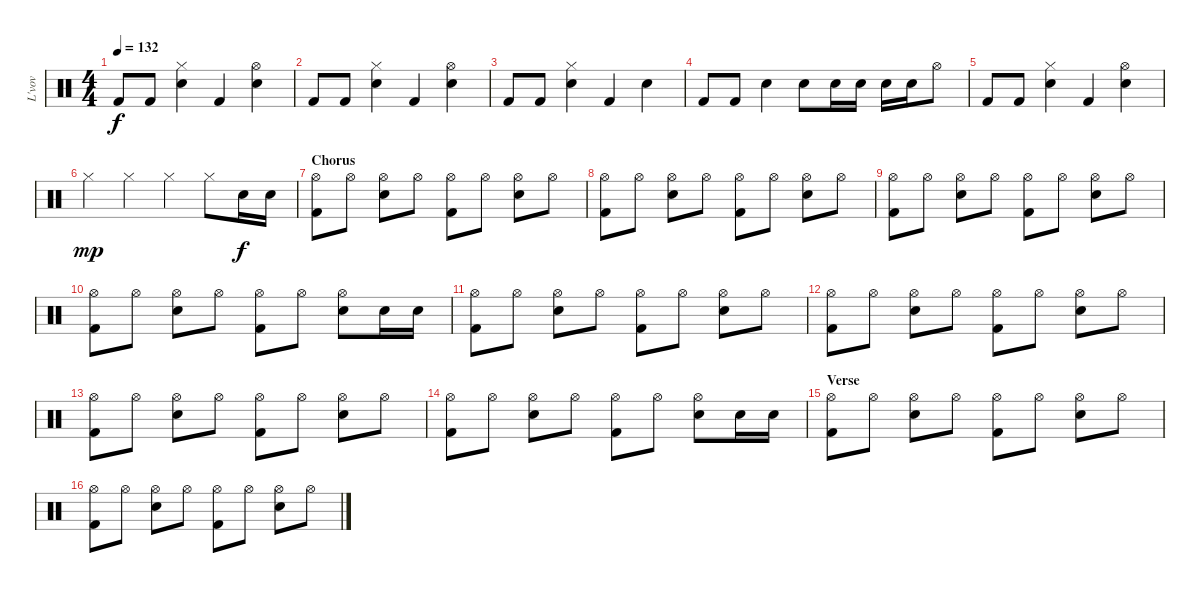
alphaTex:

\track ("L'vov" "L'vov") {instrument percussion}
\staff {score}
\articulation defaults
\ts (4 4)
\tempo 132
\clef neutral
\ks c "Kick (hit) 2".8{dy f} "Kick (hit) 2".8
("Snare (hit) 2" "Hi-Hat (closed)").4 "Kick (hit) 2".4 ("Snare (hit) 2" "Hi-Hat (open)").4 |
"Kick (hit) 2".8 "Kick (hit) 2".8 ("Snare (hit) 2" "Hi-Hat (closed)").4 "Kick (hit) 2".4 ("Snare (hit) 2" "Hi-Hat (open)").4 |
"Kick (hit) 2".8 "Kick (hit) 2".8 ("Snare (hit) 2" "Hi-Hat (closed)").4 "Kick (hit) 2".4 "Snare (hit) 2".4 |
"Kick (hit) 2".8 "Kick (hit) 2".8 "Snare (hit) 2".4 "Snare (hit) 2".8 "Snare (hit) 2".16 "Snare (hit) 2".16 "Snare (hit) 2".16 "Snare (hit) 2".16 "Hi-Hat (open)".8 |
"Kick (hit) 2".8 "Kick (hit) 2".8 ("Snare (hit) 2" "Hi-Hat (closed)").4 "Kick (hit) 2".4 ("Snare (hit) 2" "Hi-Hat (open)").4 |
"Hi-Hat (closed)".4{dy mp} "Hi-Hat (closed)".4 "Hi-Hat (closed)".4 "Hi-Hat (closed)".8 "Snare (hit) 2".16{dy f} "Snare (hit) 2".16 |
\section ("" "Chorus")
("Hi-Hat (open)" "Kick (hit) 2").8 "Hi-Hat (open)".8 ("Hi-Hat (open)" "Snare (hit) 2").8 "Hi-Hat (open)".8 ("Hi-Hat (open)" "Kick (hit) 2").8 "Hi-Hat (open)".8 ("Hi-Hat (open)" "Snare (hit) 2").8 "Hi-Hat (open)".8 |
("Hi-Hat (open)" "Kick (hit) 2").8 "Hi-Hat (open)".8 ("Hi-Hat (open)" "Snare (hit) 2").8 "Hi-Hat (open)".8 ("Hi-Hat (open)" "Kick (hit) 2").8 "Hi-Hat (open)".8 ("Hi-Hat (open)" "Snare (hit) 2").8 "Hi-Hat (open)".8 |
("Hi-Hat (open)" "Kick (hit) 2").8 "Hi-Hat (open)".8 ("Hi-Hat (open)" "Snare (hit) 2").8 "Hi-Hat (open)".8 ("Hi-Hat (open)" "Kick (hit) 2").8 "Hi-Hat (open)".8 ("Hi-Hat (open)" "Snare (hit) 2").8 "Hi-Hat (open)".8 |
("Hi-Hat (open)" "Kick (hit) 2").8 "Hi-Hat (open)".8 ("Hi-Hat (open)" "Snare (hit) 2").8 "Hi-Hat (open)".8 ("Hi-Hat (open)" "Kick (hit) 2").8 "Hi-Hat (open)".8 ("Hi-Hat (open)" "Snare (hit) 2").8 "Snare (hit) 2".16 "Snare (hit) 2".16 |
("Hi-Hat (open)" "Kick (hit) 2").8 "Hi-Hat (open)".8 ("Hi-Hat (open)" "Snare (hit) 2").8 "Hi-Hat (open)".8 ("Hi-Hat (open)" "Kick (hit) 2").8 "Hi-Hat (open)".8 ("Hi-Hat (open)" "Snare (hit) 2").8 "Hi-Hat (open)".8 |
("Hi-Hat (open)" "Kick (hit) 2").8 "Hi-Hat (open)".8 ("Hi-Hat (open)" "Snare (hit) 2").8 "Hi-Hat (open)".8 ("Hi-Hat (open)" "Kick (hit) 2").8 "Hi-Hat (open)".8 ("Hi-Hat (open)" "Snare (hit) 2").8 "Hi-Hat (open)".8 |
("Hi-Hat (open)" "Kick (hit) 2").8 "Hi-Hat (open)".8 ("Hi-Hat (open)" "Snare (hit) 2").8 "Hi-Hat (open)".8 ("Hi-Hat (open)" "Kick (hit) 2").8 "Hi-Hat (open)".8 ("Hi-Hat (open)" "Snare (hit) 2").8 "Hi-Hat (open)".8 |
("Hi-Hat (open)" "Kick (hit) 2").8 "Hi-Hat (open)".8 ("Hi-Hat (open)" "Snare (hit) 2").8 "Hi-Hat (open)".8 ("Hi-Hat (open)" "Kick (hit) 2").8 "Hi-Hat (open)".8 ("Hi-Hat (open)" "Snare (hit) 2").8 "Snare (hit) 2".16 "Snare (hit) 2".16 |
\section ("" "Verse")
("Hi-Hat (open)" "Kick (hit) 2").8 "Hi-Hat (open)".8 ("Hi-Hat (open)" "Snare (hit) 2").8 "Hi-Hat (open)".8 ("Hi-Hat (open)" "Kick (hit) 2").8 "Hi-Hat (open)".8 ("Hi-Hat (open)" "Snare (hit) 2").8 "Hi-Hat (open)".8 |
("Hi-Hat (open)" "Kick (hit) 2").8 "Hi-Hat (open)".8 ("Hi-Hat (open)" "Snare (hit) 2").8 "Hi-Hat (open)".8 ("Hi-Hat (open)" "Kick (hit) 2").8 "Hi-Hat (open)".8 ("Hi-Hat (open)" "Snare (hit) 2").8 "Hi-Hat (open)".8
